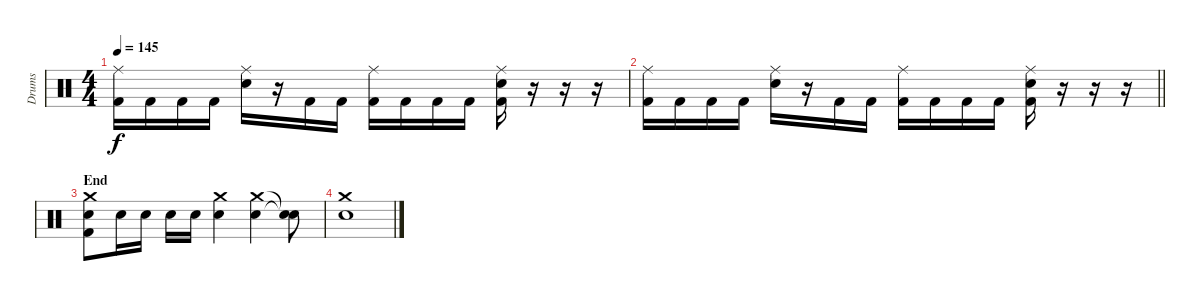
\track ("Drums" "Drums") {instrument percussion}
\staff {score}
\articulation defaults
\ts (4 4)
\tempo 145
\clef neutral
\ks c
("Ride (middle)" "Kick (hit) 2").16{dy f} "Kick (hit) 2".16 "Kick (hit) 2".16 "Kick (hit) 2".16 ("Ride (middle)" "Electric Snare (hit)").16 r.16 "Kick (hit) 2".16 "Kick (hit) 2".16 ("Ride (middle)" "Kick (hit) 2").16 "Kick (hit) 2".16 "Kick (hit) 2".16 "Kick (hit) 2".16 ("Ride (middle)" "Electric Snare (hit)" "Kick (hit) 2").16 r.16 r.16 r.16 |
\barLineRight lightlight
("Ride (middle)" "Kick (hit) 2").16 "Kick (hit) 2".16 "Kick (hit) 2".16 "Kick (hit) 2".16 ("Ride (middle)" "Electric Snare (hit)").16 r.16 "Kick (hit) 2".16 "Kick (hit) 2".16 ("Ride (middle)" "Kick (hit) 2").16 "Kick (hit) 2".16 "Kick (hit) 2".16 "Kick (hit) 2".16 ("Ride (middle)" "Electric Snare (hit)" "Kick (hit) 2").16 r.16 r.16 r.16 |
\section ("" "End")
("Electric Snare (hit)" "Crash medium (hit)" "Kick (hit) 2").8 "Electric Snare (hit)".16 "Electric Snare (hit)".16 "Electric Snare (hit)".16 "Electric Snare (hit)".16 ("Crash medium (hit)" "Electric Snare (hit)").4 ("Crash medium (hit)" "Electric Snare (hit)").4 ("Snare (hit)"{t} "Snare (hit)"{t}).8 |
("Crash medium (hit)" "Electric Snare (hit)").1
